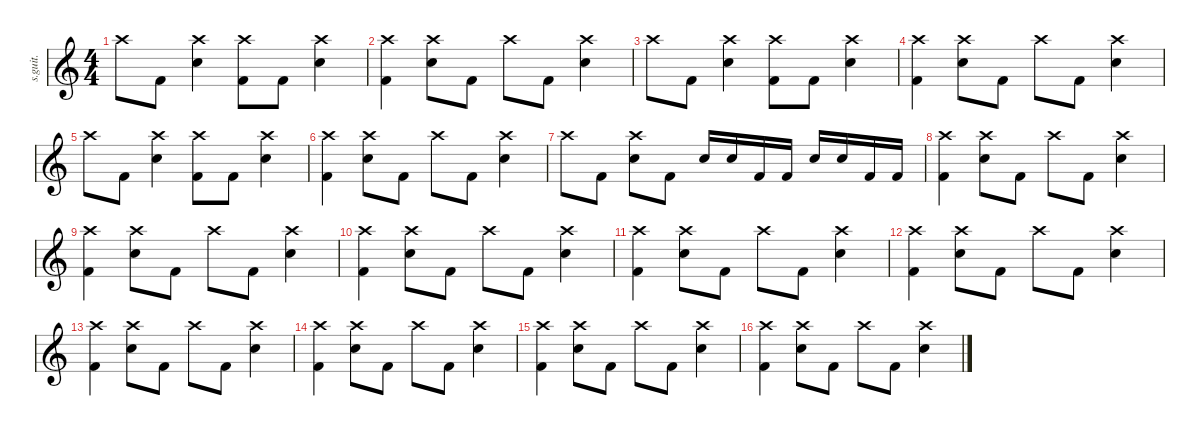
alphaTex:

\defaultSystemsLayout 4
\hideDynamics
\bracketExtendMode nobrackets
\track ("" "s.guit.") {instrument percussion}
\staff {score}
\articulation defaults
\ts (4 4)
\tempo (190 hide)
\clef g2
\ks c "Crash high (hit)".8{dy f} "Kick (hit) 2".8
("Crash high (hit)" "Snare (hit) 2").4 ("Crash high (hit)" "Kick (hit) 2").8 "Kick (hit) 2".8 ("Crash high (hit)" "Snare (hit) 2").4 |
("Crash high (hit)" "Kick (hit) 2").4 ("Crash high (hit)" "Snare (hit) 2").8 "Kick (hit) 2".8 "Crash high (hit)".8 "Kick (hit) 2".8 ("Crash high (hit)" "Snare (hit) 2").4 |
"Crash high (hit)".8 "Kick (hit) 2".8 ("Crash high (hit)" "Snare (hit) 2").4 ("Crash high (hit)" "Kick (hit) 2").8 "Kick (hit) 2".8 ("Crash high (hit)" "Snare (hit) 2").4 |
("Crash high (hit)" "Kick (hit) 2").4 ("Crash high (hit)" "Snare (hit) 2").8 "Kick (hit) 2".8 "Crash high (hit)".8 "Kick (hit) 2".8 ("Crash high (hit)" "Snare (hit) 2").4 |
"Crash high (hit)".8 "Kick (hit) 2".8 ("Crash high (hit)" "Snare (hit) 2").4 ("Crash high (hit)" "Kick (hit) 2").8 "Kick (hit) 2".8 ("Crash high (hit)" "Snare (hit) 2").4 |
("Crash high (hit)" "Kick (hit) 2").4 ("Crash high (hit)" "Snare (hit) 2").8 "Kick (hit) 2".8 "Crash high (hit)".8 "Kick (hit) 2".8 ("Crash high (hit)" "Snare (hit) 2").4 |
"Crash high (hit)".8 "Kick (hit) 2".8 ("Crash high (hit)" "Snare (hit) 2").8 "Kick (hit) 2".8 "Snare (hit) 2".16 "Snare (hit) 2".16 "Kick (hit) 2".16 "Kick (hit) 2".16 "Snare (hit) 2".16 "Snare (hit) 2".16 "Kick (hit) 2".16 "Kick (hit) 2".16 |
("Crash high (hit)" "Kick (hit) 2").4 ("Crash high (hit)" "Snare (hit) 2").8 "Kick (hit) 2".8 "Crash high (hit)".8 "Kick (hit) 2".8 ("Crash high (hit)" "Snare (hit) 2").4 |
("Crash high (hit)" "Kick (hit) 2").4 ("Crash high (hit)" "Snare (hit) 2").8 "Kick (hit) 2".8 "Crash high (hit)".8 "Kick (hit) 2".8 ("Crash high (hit)" "Snare (hit) 2").4 |
("Crash high (hit)" "Kick (hit) 2").4 ("Crash high (hit)" "Snare (hit) 2").8 "Kick (hit) 2".8 "Crash high (hit)".8 "Kick (hit) 2".8 ("Crash high (hit)" "Snare (hit) 2").4 |
("Crash high (hit)" "Kick (hit) 2").4 ("Crash high (hit)" "Snare (hit) 2").8 "Kick (hit) 2".8 "Crash high (hit)".8 "Kick (hit) 2".8 ("Crash high (hit)" "Snare (hit) 2").4 |
("Crash high (hit)" "Kick (hit) 2").4 ("Crash high (hit)" "Snare (hit) 2").8 "Kick (hit) 2".8 "Crash high (hit)".8 "Kick (hit) 2".8 ("Crash high (hit)" "Snare (hit) 2").4 |
("Crash high (hit)" "Kick (hit) 2").4 ("Crash high (hit)" "Snare (hit) 2").8 "Kick (hit) 2".8 "Crash high (hit)".8 "Kick (hit) 2".8 ("Crash high (hit)" "Snare (hit) 2").4 |
("Crash high (hit)" "Kick (hit) 2").4 ("Crash high (hit)" "Snare (hit) 2").8 "Kick (hit) 2".8 "Crash high (hit)".8 "Kick (hit) 2".8 ("Crash high (hit)" "Snare (hit) 2").4 |
("Crash high (hit)" "Kick (hit) 2").4 ("Crash high (hit)" "Snare (hit) 2").8 "Kick (hit) 2".8 "Crash high (hit)".8 "Kick (hit) 2".8 ("Crash high (hit)" "Snare (hit) 2").4 |
("Crash high (hit)" "Kick (hit) 2").4 ("Crash high (hit)" "Snare (hit) 2").8 "Kick (hit) 2".8 "Crash high (hit)".8 "Kick (hit) 2".8 ("Crash high (hit)" "Snare (hit) 2").4
